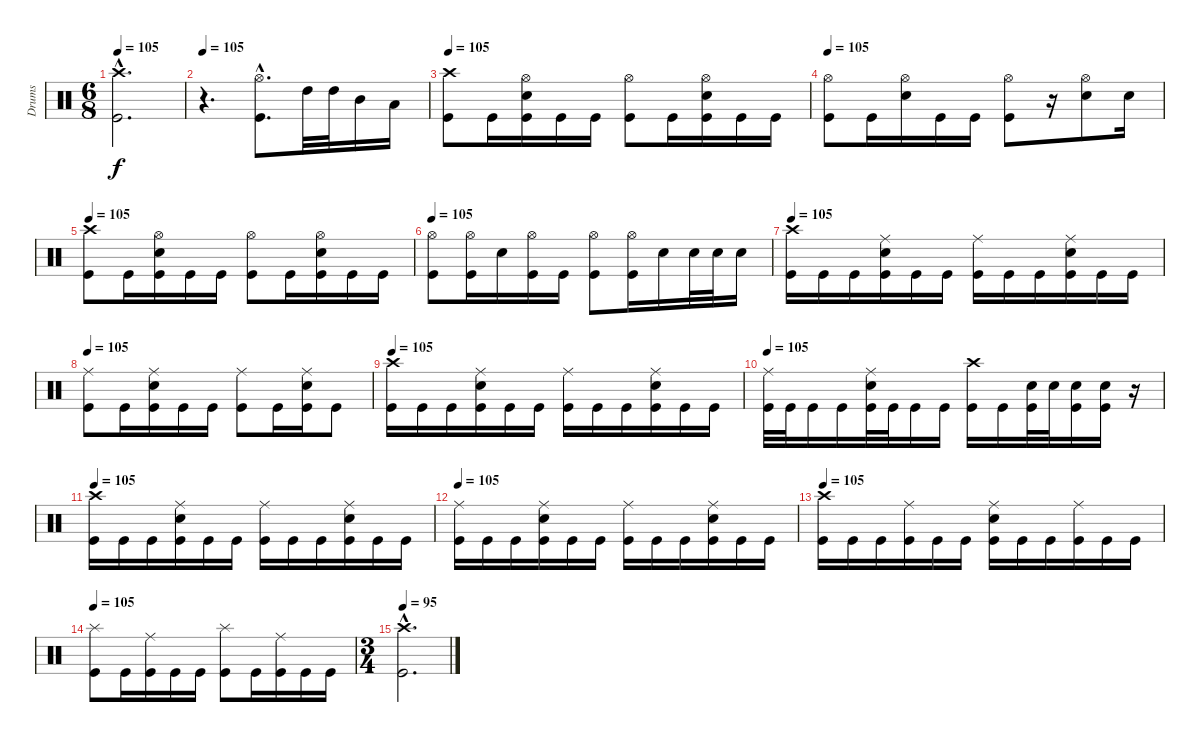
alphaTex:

\track ("Drums" "Drums") {instrument percussion}
\staff {score}
\articulation defaults
\ts (6 8)
\tempo 105
\clef neutral
\ks c
("Crash high (hit)"{hac} "Kick (hit)"{hac}).2{d dy f} |
\tempo 105
r.4{d} ("Hi-Hat (open)"{hac} "Kick (hit)"{hac}).8{d} "High Tom (hit)".32 "High Tom (hit)".32 "Mid Tom (hit)".16 "Low Tom (hit)".16 |
\tempo 105
("Crash high (hit)" "Kick (hit)").8 "Kick (hit)".16 ("Hi-Hat (open)" "Electric Snare (hit)" "Kick (hit)").16 "Kick (hit)".16 "Kick (hit)".16 ("Hi-Hat (open)" "Kick (hit)").8 "Kick (hit)".16 ("Hi-Hat (open)" "Electric Snare (hit)" "Kick (hit)").16 "Kick (hit)".16 "Kick (hit)".16 |
\tempo 105
("Hi-Hat (open)" "Kick (hit)").8 "Kick (hit)".16 ("Hi-Hat (open)" "Electric Snare (hit)").16 "Kick (hit)".16 "Kick (hit)".16 ("Hi-Hat (open)" "Kick (hit)").8 r.16 ("Hi-Hat (open)" "Electric Snare (hit)").8 "Electric Snare (hit)".16 |
\tempo 105
("Crash high (hit)" "Kick (hit)").8 "Kick (hit)".16 ("Hi-Hat (open)" "Electric Snare (hit)" "Kick (hit)").16 "Kick (hit)".16 "Kick (hit)".16 ("Hi-Hat (open)" "Kick (hit)").8 "Kick (hit)".16 ("Hi-Hat (open)" "Electric Snare (hit)" "Kick (hit)").16 "Kick (hit)".16 "Kick (hit)".16 |
\tempo 105
("Hi-Hat (open)" "Kick (hit)").8 ("Hi-Hat (open)" "Kick (hit)").16 "Electric Snare (hit)".16 ("Hi-Hat (open)" "Kick (hit)").16 "Kick (hit)".16 ("Hi-Hat (open)" "Kick (hit)").8 ("Hi-Hat (open)" "Kick (hit)").16 "Electric Snare (hit)".16 "Electric Snare (hit)".32 "Electric Snare (hit)".32 "Electric Snare (hit)".16 |
\tempo 105
("Crash high (hit)" "Kick (hit)").16 "Kick (hit)".16 "Kick (hit)".16 ("Ride (middle)" "Electric Snare (hit)" "Kick (hit)").16 "Kick (hit)".16 "Kick (hit)".16 ("Ride (middle)" "Kick (hit)").16 "Kick (hit)".16 "Kick (hit)".16 ("Ride (middle)" "Electric Snare (hit)" "Kick (hit)").16 "Kick (hit)".16 "Kick (hit)".16 |
\tempo 105
("Ride (middle)" "Kick (hit)").8 "Kick (hit)".16 ("Ride (middle)" "Electric Snare (hit)" "Kick (hit)").16 "Kick (hit)".16 "Kick (hit)".16 ("Ride (middle)" "Kick (hit)").8 "Kick (hit)".16 ("Ride (middle)" "Electric Snare (hit)" "Kick (hit)").16 "Kick (hit)".8 |
\tempo 105
("Crash high (hit)" "Kick (hit)").16 "Kick (hit)".16 "Kick (hit)".16 ("Ride (middle)" "Electric Snare (hit)" "Kick (hit)").16 "Kick (hit)".16 "Kick (hit)".16 ("Ride (middle)" "Kick (hit)").16 "Kick (hit)".16 "Kick (hit)".16 ("Ride (middle)" "Electric Snare (hit)" "Kick (hit)").16 "Kick (hit)".16 "Kick (hit)".16 |
\tempo 105
("Ride (middle)" "Kick (hit)").32 "Kick (hit)".32 "Kick (hit)".16 "Kick (hit)".16 ("Ride (middle)" "Electric Snare (hit)" "Kick (hit)").32 "Kick (hit)".32 "Kick (hit)".16 "Kick (hit)".16 ("Crash high (hit)" "Kick (hit)").16 "Kick (hit)".16 ("Electric Snare (hit)" "Kick (hit)").32 "Electric Snare (hit)".32 ("Electric Snare (hit)" "Kick (hit)").16 ("Electric Snare (hit)" "Kick (hit)").16 r.16 |
\tempo 105
("Crash high (hit)" "Kick (hit)").16 "Kick (hit)".16 "Kick (hit)".16 ("Ride (middle)" "Electric Snare (hit)" "Kick (hit)").16 "Kick (hit)".16 "Kick (hit)".16 ("Ride (middle)" "Kick (hit)").16 "Kick (hit)".16 "Kick (hit)".16 ("Ride (middle)" "Electric Snare (hit)" "Kick (hit)").16 "Kick (hit)".16 "Kick (hit)".16 |
\tempo 105
("Ride (middle)" "Kick (hit)").16 "Kick (hit)".16 "Kick (hit)".16 ("Ride (middle)" "Electric Snare (hit)" "Kick (hit)").16 "Kick (hit)".16 "Kick (hit)".16 ("Ride (middle)" "Kick (hit)").16 "Kick (hit)".16 "Kick (hit)".16 ("Ride (middle)" "Electric Snare (hit)" "Kick (hit)").16 "Kick (hit)".16 "Kick (hit)".16 |
\tempo 105
("Crash high (hit)" "Kick (hit)").16 "Kick (hit)".16 "Kick (hit)".16 ("Ride (middle)" "Kick (hit)").16 "Kick (hit)".16 "Kick (hit)".16 ("Ride (middle)" "Electric Snare (hit)" "Kick (hit)").16 "Kick (hit)".16 "Kick (hit)".16 ("Ride (middle)" "Kick (hit)").16 "Kick (hit)".16 "Kick (hit)".16 |
\tempo 105
("Splash (hit)" "Kick (hit)").8 "Kick (hit)".16 ("Ride (middle)" "Kick (hit)").16 "Kick (hit)".16 "Kick (hit)".16 ("Splash (hit)" "Kick (hit)").8 "Kick (hit)".16 ("Ride (middle)" "Kick (hit)").16 "Kick (hit)".16 "Kick (hit)".16 |
\ts (3 4)
\tempo 95
("Crash high (hit)"{hac} "Kick (hit)"{hac}).2{d}
